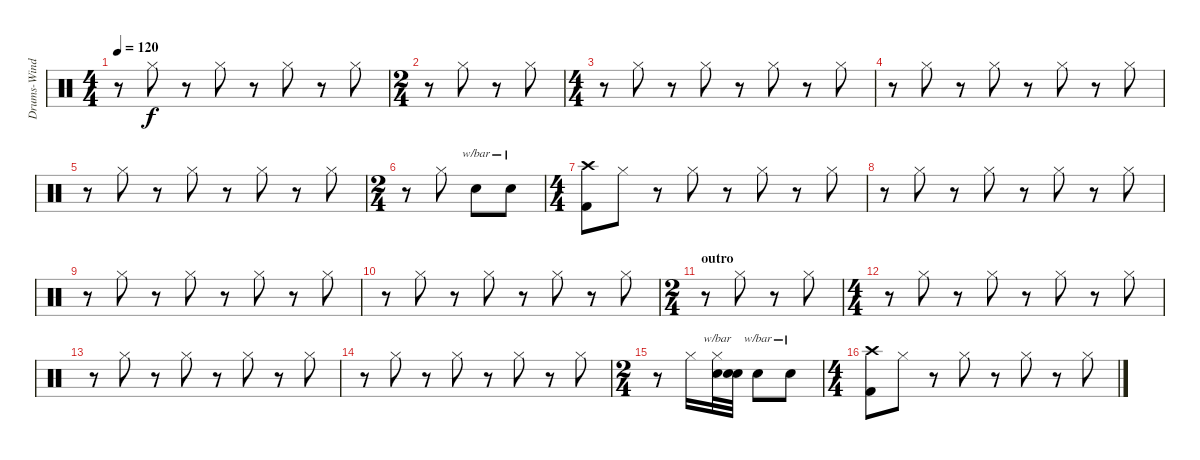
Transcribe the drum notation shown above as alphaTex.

\track ("Drums-Wind (Bengerg)" "Drums-Wind") {instrument percussion}
\staff {score}
\articulation defaults
\ts (4 4)
\tempo 120
\clef neutral
\ks c
r.8{dy f} "Hi-Hat (closed)".8 r.8 "Hi-Hat (closed)".8 r.8 "Hi-Hat (closed)".8 r.8 "Hi-Hat (closed)".8 |
\ts (2 4)
r.8 "Hi-Hat (closed)".8 r.8 "Hi-Hat (closed)".8 |
\ts (4 4)
r.8 "Hi-Hat (closed)".8 r.8 "Hi-Hat (closed)".8 r.8 "Hi-Hat (closed)".8 r.8 "Hi-Hat (closed)".8 |
r.8 "Hi-Hat (closed)".8 r.8 "Hi-Hat (closed)".8 r.8 "Hi-Hat (closed)".8 r.8 "Hi-Hat (closed)".8 |
r.8 "Hi-Hat (closed)".8 r.8 "Hi-Hat (closed)".8 r.8 "Hi-Hat (closed)".8 r.8 "Hi-Hat (closed)".8 |
\ts (2 4)
r.8 "Hi-Hat (closed)".8 "Electric Snare (hit)".8{tbe (custom default 0 12 45 12 60 0) balance 16} "Electric Snare (hit)".8{tbe (custom default 0 12 45 12 60 0) balance 0} |
\ts (4 4)
("Crash high (hit)" "Kick (hit) 2").8{balance 8} "Hi-Hat (closed)".8 r.8 "Hi-Hat (closed)".8 r.8 "Hi-Hat (closed)".8 r.8 "Hi-Hat (closed)".8 |
r.8 "Hi-Hat (closed)".8 r.8 "Hi-Hat (closed)".8 r.8 "Hi-Hat (closed)".8 r.8 "Hi-Hat (closed)".8 |
r.8 "Hi-Hat (closed)".8 r.8 "Hi-Hat (closed)".8 r.8 "Hi-Hat (closed)".8 r.8 "Hi-Hat (closed)".8 |
r.8 "Hi-Hat (closed)".8 r.8 "Hi-Hat (closed)".8 r.8 "Hi-Hat (closed)".8 r.8 "Hi-Hat (closed)".8 |
\ts (2 4)
\section ("" "outro")
r.8 "Hi-Hat (closed)".8 r.8 "Hi-Hat (closed)".8 |
\ts (4 4)
r.8 "Hi-Hat (closed)".8 r.8 "Hi-Hat (closed)".8 r.8 "Hi-Hat (closed)".8 r.8 "Hi-Hat (closed)".8 |
r.8 "Hi-Hat (closed)".8 r.8 "Hi-Hat (closed)".8 r.8 "Hi-Hat (closed)".8 r.8 "Hi-Hat (closed)".8 |
r.8 "Hi-Hat (closed)".8 r.8 "Hi-Hat (closed)".8 r.8 "Hi-Hat (closed)".8 r.8 "Hi-Hat (closed)".8 |
\ts (2 4)
r.8 "Hi-Hat (closed)".16 ("Hi-Hat (closed)" "Electric Snare (hit)").32{tbe (custom default 0 12 45 12 60 0)} ("Snare (hit)"{t} "Electric Snare (hit)").32 "Electric Snare (hit)".8{tbe (custom default 0 12 45 12 60 0) balance 16} "Electric Snare (hit)".8{tbe (custom default 0 12 45 12 60 0) balance 0} |
\ts (4 4)
("Crash high (hit)" "Kick (hit) 2").8{balance 8} "Hi-Hat (closed)".8 r.8 "Hi-Hat (closed)".8 r.8 "Hi-Hat (closed)".8 r.8 "Hi-Hat (closed)".8
